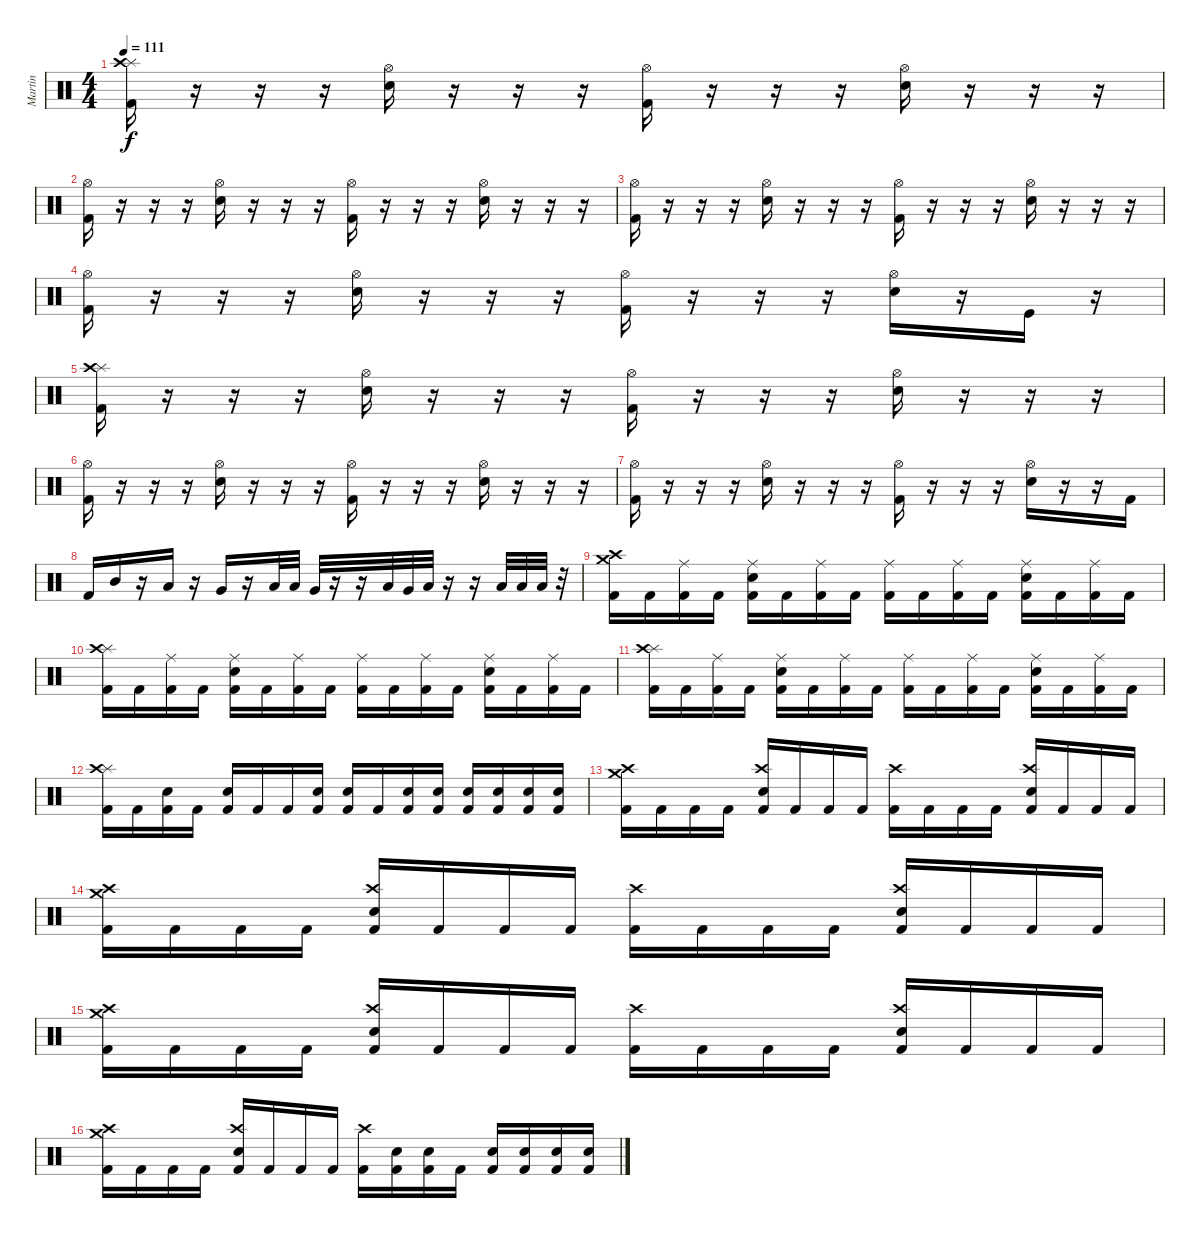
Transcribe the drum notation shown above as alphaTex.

\track ("Martin" "Martin") {instrument percussion}
\staff {score}
\articulation defaults
\ts (4 4)
\tempo 111
\clef neutral
\ks c
("Kick (hit) 2" "Splash (hit)" "Crash high (hit)").16{dy f} r.16 r.16 r.16 ("Electric Snare (hit)" "Hi-Hat (open)").16 r.16 r.16 r.16 ("Kick (hit) 2" "Hi-Hat (open)").16 r.16 r.16 r.16 ("Electric Snare (hit)" "Hi-Hat (open)").16 r.16 r.16 r.16 |
("Kick (hit) 2" "Hi-Hat (open)").16 r.16 r.16 r.16 ("Electric Snare (hit)" "Hi-Hat (open)").16 r.16 r.16 r.16 ("Kick (hit) 2" "Hi-Hat (open)").16 r.16 r.16 r.16 ("Electric Snare (hit)" "Hi-Hat (open)").16 r.16 r.16 r.16 |
("Kick (hit) 2" "Hi-Hat (open)").16 r.16 r.16 r.16 ("Electric Snare (hit)" "Hi-Hat (open)").16 r.16 r.16 r.16 ("Kick (hit) 2" "Hi-Hat (open)").16 r.16 r.16 r.16 ("Electric Snare (hit)" "Hi-Hat (open)").16 r.16 r.16 r.16 |
("Kick (hit) 2" "Hi-Hat (open)").16 r.16 r.16 r.16 ("Electric Snare (hit)" "Hi-Hat (open)").16 r.16 r.16 r.16 ("Kick (hit) 2" "Hi-Hat (open)").16 r.16 r.16 r.16 ("Electric Snare (hit)" "Hi-Hat (open)").16 r.16 "Kick (hit)".16 r.16 |
("Kick (hit) 2" "Splash (hit)" "Crash high (hit)").16 r.16 r.16 r.16 ("Electric Snare (hit)" "Hi-Hat (open)").16 r.16 r.16 r.16 ("Kick (hit) 2" "Hi-Hat (open)").16 r.16 r.16 r.16 ("Electric Snare (hit)" "Hi-Hat (open)").16 r.16 r.16 r.16 |
("Kick (hit) 2" "Hi-Hat (open)").16 r.16 r.16 r.16 ("Electric Snare (hit)" "Hi-Hat (open)").16 r.16 r.16 r.16 ("Kick (hit) 2" "Hi-Hat (open)").16 r.16 r.16 r.16 ("Electric Snare (hit)" "Hi-Hat (open)").16 r.16 r.16 r.16 |
("Kick (hit) 2" "Hi-Hat (open)").16 r.16 r.16 r.16 ("Electric Snare (hit)" "Hi-Hat (open)").16 r.16 r.16 r.16 ("Kick (hit) 2" "Hi-Hat (open)").16 r.16 r.16 r.16 ("Electric Snare (hit)" "Hi-Hat (open)").16 r.16 r.16 "Kick (hit) 2".16 |
"Kick (hit) 2".16 "Mid Tom (hit)".16 r.16 "Low Tom (hit)".16 r.16 "Very Low Tom (hit)".16 r.16 "Low Floor Tom (hit)".32 "Low Floor Tom (hit)".32 "Very Low Tom (hit)".32 r.16 r.16 "Low Floor Tom (hit)".32 "Very Low Tom (hit)".32 "Low Floor Tom (hit)".32 r.16 r.16 "Low Floor Tom (hit)".32 "Low Floor Tom (hit)".32 "Low Floor Tom (hit)".32 r.32 |
("Kick (hit) 2" "Crash high (hit)" "Crash medium (hit)").16 "Kick (hit) 2".16 ("Kick (hit) 2" "Ride (middle)").16 "Kick (hit) 2".16 ("Kick (hit) 2" "Electric Snare (hit)" "Ride (middle)").16 "Kick (hit) 2".16 ("Kick (hit) 2" "Ride (middle)").16 "Kick (hit) 2".16 ("Kick (hit) 2" "Ride (middle)").16 "Kick (hit) 2".16 ("Kick (hit) 2" "Ride (middle)").16 "Kick (hit) 2".16 ("Kick (hit) 2" "Electric Snare (hit)" "Ride (middle)").16 "Kick (hit) 2".16 ("Kick (hit) 2" "Ride (middle)").16 "Kick (hit) 2".16 |
("Kick (hit) 2" "Splash (hit)" "Crash high (hit)").16 "Kick (hit) 2".16 ("Kick (hit) 2" "Ride (middle)").16 "Kick (hit) 2".16 ("Kick (hit) 2" "Electric Snare (hit)" "Ride (middle)").16 "Kick (hit) 2".16 ("Kick (hit) 2" "Ride (middle)").16 "Kick (hit) 2".16 ("Kick (hit) 2" "Ride (middle)").16 "Kick (hit) 2".16 ("Kick (hit) 2" "Ride (middle)").16 "Kick (hit) 2".16 ("Kick (hit) 2" "Electric Snare (hit)" "Ride (middle)").16 "Kick (hit) 2".16 ("Kick (hit) 2" "Ride (middle)").16 "Kick (hit) 2".16 |
("Kick (hit) 2" "Splash (hit)" "Crash high (hit)").16 "Kick (hit) 2".16 ("Kick (hit) 2" "Ride (middle)").16 "Kick (hit) 2".16 ("Kick (hit) 2" "Electric Snare (hit)" "Ride (middle)").16 "Kick (hit) 2".16 ("Kick (hit) 2" "Ride (middle)").16 "Kick (hit) 2".16 ("Kick (hit) 2" "Ride (middle)").16 "Kick (hit) 2".16 ("Kick (hit) 2" "Ride (middle)").16 "Kick (hit) 2".16 ("Kick (hit) 2" "Electric Snare (hit)" "Ride (middle)").16 "Kick (hit) 2".16 ("Kick (hit) 2" "Ride (middle)").16 "Kick (hit) 2".16 |
("Kick (hit) 2" "Splash (hit)" "Crash high (hit)").16 "Kick (hit) 2".16 ("Kick (hit) 2" "Electric Snare (hit)").16 "Kick (hit) 2".16 ("Kick (hit) 2" "Electric Snare (hit)").16 "Kick (hit) 2".16 "Kick (hit) 2".16 ("Kick (hit) 2" "Electric Snare (hit)").16 ("Kick (hit) 2" "Electric Snare (hit)").16 "Kick (hit) 2".16 ("Kick (hit) 2" "Electric Snare (hit)").16 ("Kick (hit) 2" "Electric Snare (hit)").16 ("Kick (hit) 2" "Electric Snare (hit)").16 ("Kick (hit) 2" "Electric Snare (hit)").16 ("Kick (hit) 2" "Electric Snare (hit)").16 ("Kick (hit) 2" "Electric Snare (hit)").16 |
("Kick (hit) 2" "Crash high (hit)" "Crash medium (hit)").16 "Kick (hit) 2".16 "Kick (hit) 2".16 "Kick (hit) 2".16 ("Kick (hit) 2" "Electric Snare (hit)" "Crash high (hit)").16 "Kick (hit) 2".16 "Kick (hit) 2".16 "Kick (hit) 2".16 ("Kick (hit) 2" "Crash high (hit)").16 "Kick (hit) 2".16 "Kick (hit) 2".16 "Kick (hit) 2".16 ("Kick (hit) 2" "Electric Snare (hit)" "Crash high (hit)").16 "Kick (hit) 2".16 "Kick (hit) 2".16 "Kick (hit) 2".16 |
("Kick (hit) 2" "Crash high (hit)" "Crash medium (hit)").16 "Kick (hit) 2".16 "Kick (hit) 2".16 "Kick (hit) 2".16 ("Kick (hit) 2" "Electric Snare (hit)" "Crash high (hit)").16 "Kick (hit) 2".16 "Kick (hit) 2".16 "Kick (hit) 2".16 ("Kick (hit) 2" "Crash high (hit)").16 "Kick (hit) 2".16 "Kick (hit) 2".16 "Kick (hit) 2".16 ("Kick (hit) 2" "Electric Snare (hit)" "Crash high (hit)").16 "Kick (hit) 2".16 "Kick (hit) 2".16 "Kick (hit) 2".16 |
("Kick (hit) 2" "Crash high (hit)" "Crash medium (hit)").16 "Kick (hit) 2".16 "Kick (hit) 2".16 "Kick (hit) 2".16 ("Kick (hit) 2" "Electric Snare (hit)" "Crash high (hit)").16 "Kick (hit) 2".16 "Kick (hit) 2".16 "Kick (hit) 2".16 ("Kick (hit) 2" "Crash high (hit)").16 "Kick (hit) 2".16 "Kick (hit) 2".16 "Kick (hit) 2".16 ("Kick (hit) 2" "Electric Snare (hit)" "Crash high (hit)").16 "Kick (hit) 2".16 "Kick (hit) 2".16 "Kick (hit) 2".16 |
("Kick (hit) 2" "Crash high (hit)" "Crash medium (hit)").16 "Kick (hit) 2".16 "Kick (hit) 2".16 "Kick (hit) 2".16 ("Kick (hit) 2" "Electric Snare (hit)" "Crash high (hit)").16 "Kick (hit) 2".16 "Kick (hit) 2".16 "Kick (hit) 2".16 ("Kick (hit) 2" "Crash high (hit)").16 ("Kick (hit) 2" "Electric Snare (hit)").16 ("Kick (hit) 2" "Electric Snare (hit)").16 "Kick (hit) 2".16 ("Kick (hit) 2" "Electric Snare (hit)").16 ("Kick (hit) 2" "Electric Snare (hit)").16 ("Kick (hit) 2" "Electric Snare (hit)").16 ("Kick (hit) 2" "Electric Snare (hit)").16
